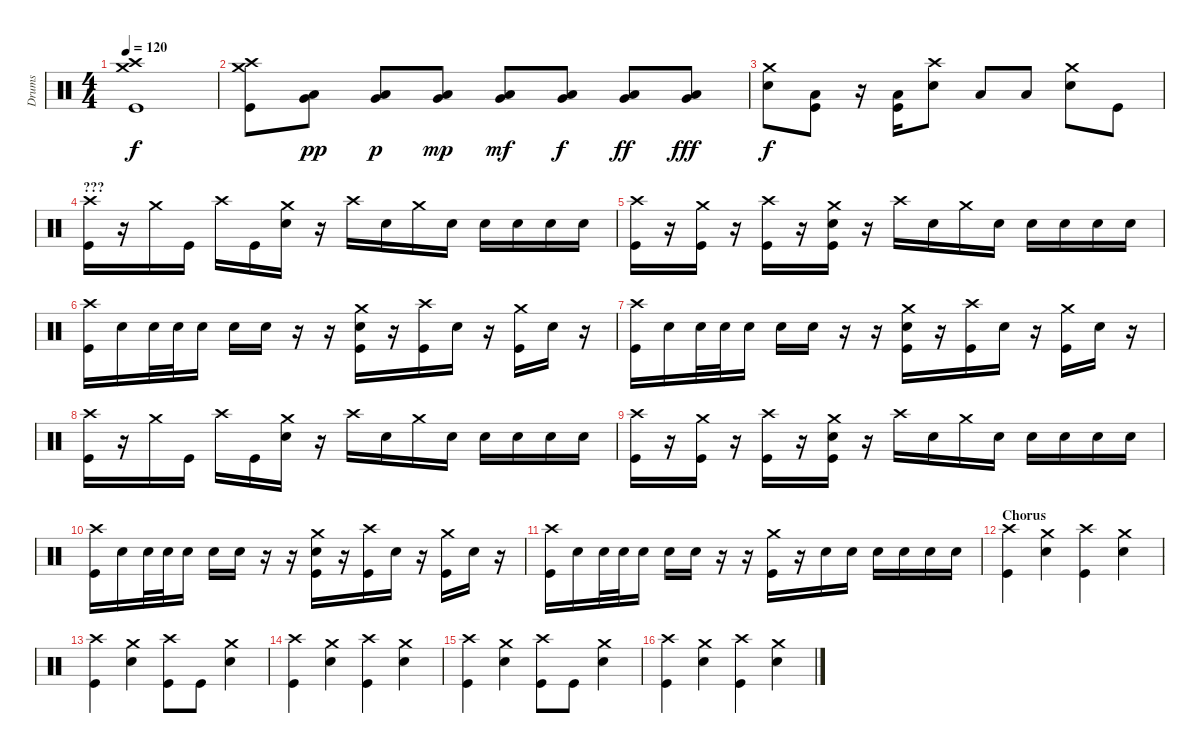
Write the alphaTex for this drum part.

\track ("Drums" "Drums") {instrument percussion}
\staff {score}
\articulation defaults
\ts (4 4)
\tempo 120
\clef neutral
\ks c
("Crash high (hit)" "Crash medium (hit)" "Kick (hit)").1{dy f} |
("Crash medium (hit)" "Crash high (hit)" "Kick (hit)").8 ("Very Low Tom (hit)" "Low Tom (hit)").8{dy pp} ("Very Low Tom (hit)" "Low Tom (hit)").8{dy p} ("Very Low Tom (hit)" "Low Tom (hit)").8{dy mp} ("Very Low Tom (hit)" "Low Tom (hit)").8{dy mf} ("Very Low Tom (hit)" "Low Tom (hit)").8{dy f} ("Very Low Tom (hit)" "Low Tom (hit)").8{dy ff} ("Very Low Tom (hit)" "Low Tom (hit)").8{dy fff} |
("Crash medium (hit)" "Electric Snare (hit)").8{dy f} ("Low Tom (hit)" "Kick (hit)").8 r.16 ("Low Tom (hit)" "Kick (hit)").16 ("Crash high (hit)" "Electric Snare (hit)").8 "Low Tom (hit)".8 "Low Tom (hit)".8 ("Crash medium (hit)" "Electric Snare (hit)").8 "Kick (hit)".8 |
\section ("" "???")
("Crash high (hit)" "Kick (hit)").16 r.16 "Crash medium (hit)".16 "Kick (hit)".16 "Crash high (hit)".16 "Kick (hit)".16 ("Crash medium (hit)" "Electric Snare (hit)").16 r.16 "Crash high (hit)".16 "Electric Snare (hit)".16 "Crash medium (hit)".16 "Electric Snare (hit)".16 "Electric Snare (hit)".16 "Electric Snare (hit)".16 "Electric Snare (hit)".16 "Electric Snare (hit)".16 |
("Crash high (hit)" "Kick (hit)").16 r.16 ("Crash medium (hit)" "Kick (hit)").16 r.16 ("Crash high (hit)" "Kick (hit)").16 r.16 ("Crash medium (hit)" "Electric Snare (hit)" "Kick (hit)").16 r.16 "Crash high (hit)".16 "Electric Snare (hit)".16 "Crash medium (hit)".16 "Electric Snare (hit)".16 "Electric Snare (hit)".16 "Electric Snare (hit)".16 "Electric Snare (hit)".16 "Electric Snare (hit)".16 |
("Crash high (hit)" "Kick (hit)").16 "Electric Snare (hit)".16 "Electric Snare (hit)".32 "Electric Snare (hit)".32 "Electric Snare (hit)".16 "Electric Snare (hit)".16 "Electric Snare (hit)".16 r.16 r.16 ("Crash medium (hit)" "Electric Snare (hit)" "Kick (hit)").16 r.16 ("Crash high (hit)" "Kick (hit)").16 "Electric Snare (hit)".16 r.16 ("Crash medium (hit)" "Kick (hit)").16 "Electric Snare (hit)".16 r.16 |
("Crash high (hit)" "Kick (hit)").16 "Electric Snare (hit)".16 "Electric Snare (hit)".32 "Electric Snare (hit)".32 "Electric Snare (hit)".16 "Electric Snare (hit)".16 "Electric Snare (hit)".16 r.16 r.16 ("Crash medium (hit)" "Electric Snare (hit)" "Kick (hit)").16 r.16 ("Crash high (hit)" "Kick (hit)").16 "Electric Snare (hit)".16 r.16 ("Crash medium (hit)" "Kick (hit)").16 "Electric Snare (hit)".16 r.16 |
("Crash high (hit)" "Kick (hit)").16 r.16 "Crash medium (hit)".16 "Kick (hit)".16 "Crash high (hit)".16 "Kick (hit)".16 ("Crash medium (hit)" "Electric Snare (hit)").16 r.16 "Crash high (hit)".16 "Electric Snare (hit)".16 "Crash medium (hit)".16 "Electric Snare (hit)".16 "Electric Snare (hit)".16 "Electric Snare (hit)".16 "Electric Snare (hit)".16 "Electric Snare (hit)".16 |
("Crash high (hit)" "Kick (hit)").16 r.16 ("Crash medium (hit)" "Kick (hit)").16 r.16 ("Crash high (hit)" "Kick (hit)").16 r.16 ("Crash medium (hit)" "Electric Snare (hit)" "Kick (hit)").16 r.16 "Crash high (hit)".16 "Electric Snare (hit)".16 "Crash medium (hit)".16 "Electric Snare (hit)".16 "Electric Snare (hit)".16 "Electric Snare (hit)".16 "Electric Snare (hit)".16 "Electric Snare (hit)".16 |
("Crash high (hit)" "Kick (hit)").16 "Electric Snare (hit)".16 "Electric Snare (hit)".32 "Electric Snare (hit)".32 "Electric Snare (hit)".16 "Electric Snare (hit)".16 "Electric Snare (hit)".16 r.16 r.16 ("Crash medium (hit)" "Electric Snare (hit)" "Kick (hit)").16 r.16 ("Crash high (hit)" "Kick (hit)").16 "Electric Snare (hit)".16 r.16 ("Crash medium (hit)" "Kick (hit)").16 "Electric Snare (hit)".16 r.16 |
("Crash high (hit)" "Kick (hit)").16 "Electric Snare (hit)".16 "Electric Snare (hit)".32 "Electric Snare (hit)".32 "Electric Snare (hit)".16 "Electric Snare (hit)".16 "Electric Snare (hit)".16 r.16 r.16 ("Crash medium (hit)" "Kick (hit)").16 r.16 "Electric Snare (hit)".16 "Electric Snare (hit)".16 "Electric Snare (hit)".16 "Electric Snare (hit)".16 "Electric Snare (hit)".16 "Electric Snare (hit)".16 |
\section ("" "Chorus")
("Crash high (hit)" "Kick (hit)").4 ("Crash medium (hit)" "Electric Snare (hit)").4 ("Crash high (hit)" "Kick (hit)").4 ("Crash medium (hit)" "Electric Snare (hit)").4 |
("Crash high (hit)" "Kick (hit)").4 ("Crash medium (hit)" "Electric Snare (hit)").4 ("Crash high (hit)" "Kick (hit)").8 "Kick (hit)".8 ("Crash medium (hit)" "Electric Snare (hit)").4 |
("Crash high (hit)" "Kick (hit)").4 ("Crash medium (hit)" "Electric Snare (hit)").4 ("Crash high (hit)" "Kick (hit)").4 ("Crash medium (hit)" "Electric Snare (hit)").4 |
("Crash high (hit)" "Kick (hit)").4 ("Crash medium (hit)" "Electric Snare (hit)").4 ("Crash high (hit)" "Kick (hit)").8 "Kick (hit)".8 ("Crash medium (hit)" "Electric Snare (hit)").4 |
("Crash high (hit)" "Kick (hit)").4 ("Crash medium (hit)" "Electric Snare (hit)").4 ("Crash high (hit)" "Kick (hit)").4 ("Crash medium (hit)" "Electric Snare (hit)").4
